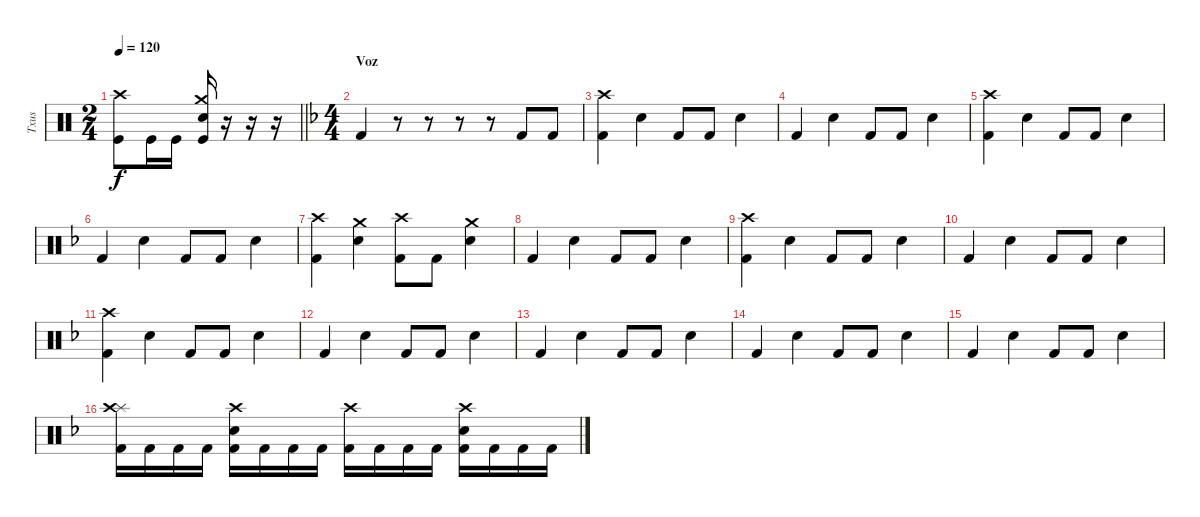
\track ("Txus" "Txus") {instrument percussion}
\staff {score}
\articulation defaults
\ts (2 4)
\tempo 120
\clef neutral
\barLineRight lightlight
\ks c
("Kick (hit)" "Crash high (hit)").8{dy f} "Kick (hit)".16 "Kick (hit)".16 ("Kick (hit)" "Crash medium (hit)" "Electric Snare (hit)").16 r.16 r.16 r.16 |
\ts (4 4)
\section ("" "Voz")
\ks dminor "Kick (hit) 2".4
r.8 r.8 r.8 r.8 "Kick (hit) 2".8 "Kick (hit) 2".8 |
("Kick (hit) 2" "Crash high (hit)").4 "Electric Snare (hit)".4 "Kick (hit) 2".8 "Kick (hit) 2".8 "Electric Snare (hit)".4 |
"Kick (hit) 2".4 "Electric Snare (hit)".4 "Kick (hit) 2".8 "Kick (hit) 2".8 "Electric Snare (hit)".4 |
("Kick (hit) 2" "Crash high (hit)").4 "Electric Snare (hit)".4 "Kick (hit) 2".8 "Kick (hit) 2".8 "Electric Snare (hit)".4 |
"Kick (hit) 2".4 "Electric Snare (hit)".4 "Kick (hit) 2".8 "Kick (hit) 2".8 "Electric Snare (hit)".4 |
("Kick (hit) 2" "Crash high (hit)").4 ("Electric Snare (hit)" "Crash medium (hit)").4 ("Kick (hit) 2" "Crash high (hit)").8 "Kick (hit) 2".8 ("Electric Snare (hit)" "Crash medium (hit)").4 |
"Kick (hit) 2".4 "Electric Snare (hit)".4 "Kick (hit) 2".8 "Kick (hit) 2".8 "Electric Snare (hit)".4 |
("Kick (hit) 2" "Crash high (hit)").4 "Electric Snare (hit)".4 "Kick (hit) 2".8 "Kick (hit) 2".8 "Electric Snare (hit)".4 |
"Kick (hit) 2".4 "Electric Snare (hit)".4 "Kick (hit) 2".8 "Kick (hit) 2".8 "Electric Snare (hit)".4 |
("Kick (hit) 2" "Crash high (hit)").4 "Electric Snare (hit)".4 "Kick (hit) 2".8 "Kick (hit) 2".8 "Electric Snare (hit)".4 |
"Kick (hit) 2".4 "Electric Snare (hit)".4 "Kick (hit) 2".8 "Kick (hit) 2".8 "Electric Snare (hit)".4 |
"Kick (hit) 2".4 "Electric Snare (hit)".4 "Kick (hit) 2".8 "Kick (hit) 2".8 "Electric Snare (hit)".4 |
"Kick (hit) 2".4 "Electric Snare (hit)".4 "Kick (hit) 2".8 "Kick (hit) 2".8 "Electric Snare (hit)".4 |
"Kick (hit) 2".4 "Electric Snare (hit)".4 "Kick (hit) 2".8 "Kick (hit) 2".8 "Electric Snare (hit)".4 |
("Kick (hit) 2" "Splash (hit)" "Crash high (hit)").16 "Kick (hit) 2".16 "Kick (hit) 2".16 "Kick (hit) 2".16 ("Kick (hit) 2" "Electric Snare (hit)" "Crash high (hit)").16 "Kick (hit) 2".16 "Kick (hit) 2".16 "Kick (hit) 2".16 ("Kick (hit) 2" "Crash high (hit)").16 "Kick (hit) 2".16 "Kick (hit) 2".16 "Kick (hit) 2".16 ("Kick (hit) 2" "Electric Snare (hit)" "Crash high (hit)").16 "Kick (hit) 2".16 "Kick (hit) 2".16 "Kick (hit) 2".16
